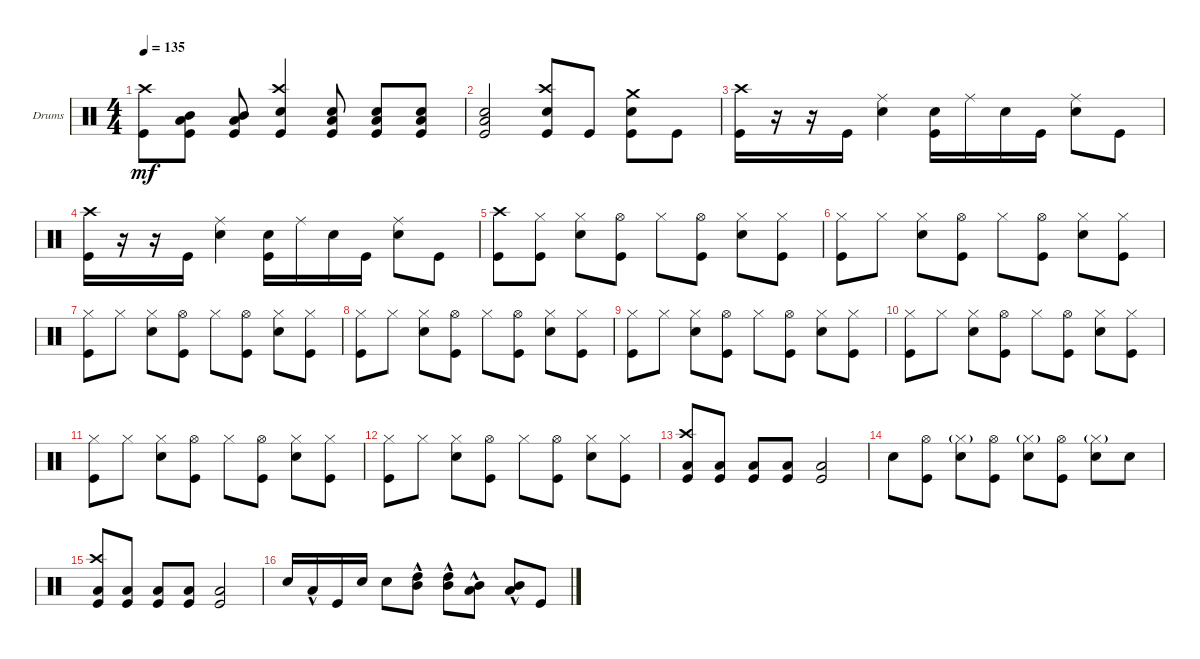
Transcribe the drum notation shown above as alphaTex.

\defaultSystemsLayout 4
\bracketExtendMode groupsimilarinstruments
\firstSystemTrackNameOrientation horizontal
\otherSystemsTrackNameOrientation horizontal
\track ("Drumkit" "Drums") {instrument percussion}
\staff {score}
\articulation defaults
\ts (4 4)
\tempo 135
\clef neutral
\ks c
("Kick (hit)" "Crash high (hit)").8{dy mf} ("Mid Tom (hit)" "Low Tom (hit)" "Kick (hit)").8 ("Mid Tom (hit)" "Low Tom (hit)" "Kick (hit)").8 ("Kick (hit)" "Snare (hit) 2" "Crash high (hit)").4 ("Kick (hit)" "Low Tom (hit)" "Snare (hit) 2").8 ("Kick (hit)" "Snare (hit) 2" "Low Tom (hit)").8 ("Kick (hit)" "Low Tom (hit)" "Snare (hit) 2").8 |
("Kick (hit)" "Snare (hit) 2" "Low Tom (hit)").2 ("Snare (hit) 2" "Kick (hit)" "Crash high (hit)").8 "Kick (hit)".8 ("Snare (hit) 2" "Crash medium (hit)" "Kick (hit)").8 "Kick (hit)".8 |
("Crash high (hit)" "Kick (hit)").16 r.16 r.16 "Kick (hit)".16 ("Ride (middle)" "Snare (hit) 2").4 ("Snare (hit) 2" "Kick (hit)").16 "Ride (middle)".16 "Snare (hit) 2".16 "Kick (hit)".16 ("Snare (hit) 2" "Ride (middle)").8 "Kick (hit)".8 |
("Crash high (hit)" "Kick (hit)").16 r.16 r.16 "Kick (hit)".16 ("Ride (middle)" "Snare (hit) 2").4 ("Snare (hit) 2" "Kick (hit)").16 "Ride (middle)".16 "Snare (hit) 2".16 "Kick (hit)".16 ("Snare (hit) 2" "Ride (middle)").8 "Kick (hit)".8 |
("Crash high (hit)" "Kick (hit)").8 ("Kick (hit)" "Hi-Hat (closed)").8 ("Hi-Hat (closed)" "Snare (hit) 2").8 ("Hi-Hat (open)" "Kick (hit)").8 "Hi-Hat (closed)".8 ("Kick (hit)" "Hi-Hat (open)").8 ("Snare (hit) 2" "Hi-Hat (closed)").8 ("Kick (hit)" "Hi-Hat (closed)").8 |
("Hi-Hat (closed)" "Kick (hit)").8 "Hi-Hat (closed)".8 ("Hi-Hat (closed)" "Snare (hit) 2").8 ("Hi-Hat (open)" "Kick (hit)").8 "Hi-Hat (closed)".8 ("Kick (hit)" "Hi-Hat (open)").8 ("Snare (hit) 2" "Hi-Hat (closed)").8 ("Kick (hit)" "Hi-Hat (closed)").8 |
("Hi-Hat (closed)" "Kick (hit)").8 "Hi-Hat (closed)".8 ("Hi-Hat (closed)" "Snare (hit) 2").8 ("Hi-Hat (open)" "Kick (hit)").8 "Hi-Hat (closed)".8 ("Kick (hit)" "Hi-Hat (open)").8 ("Snare (hit) 2" "Hi-Hat (closed)").8 ("Kick (hit)" "Hi-Hat (closed)").8 |
("Hi-Hat (closed)" "Kick (hit)").8 "Hi-Hat (closed)".8 ("Hi-Hat (closed)" "Snare (hit) 2").8 ("Hi-Hat (open)" "Kick (hit)").8 "Hi-Hat (closed)".8 ("Kick (hit)" "Hi-Hat (open)").8 ("Snare (hit) 2" "Hi-Hat (closed)").8 ("Kick (hit)" "Hi-Hat (closed)").8 |
("Hi-Hat (closed)" "Kick (hit)").8 "Hi-Hat (closed)".8 ("Hi-Hat (closed)" "Snare (hit) 2").8 ("Hi-Hat (open)" "Kick (hit)").8 "Hi-Hat (closed)".8 ("Kick (hit)" "Hi-Hat (open)").8 ("Snare (hit) 2" "Hi-Hat (closed)").8 ("Kick (hit)" "Hi-Hat (closed)").8 |
("Hi-Hat (closed)" "Kick (hit)").8 "Hi-Hat (closed)".8 ("Hi-Hat (closed)" "Snare (hit) 2").8 ("Hi-Hat (open)" "Kick (hit)").8 "Hi-Hat (closed)".8 ("Kick (hit)" "Hi-Hat (open)").8 ("Snare (hit) 2" "Hi-Hat (closed)").8 ("Kick (hit)" "Hi-Hat (closed)").8 |
("Hi-Hat (closed)" "Kick (hit)").8 "Hi-Hat (closed)".8 ("Hi-Hat (closed)" "Snare (hit) 2").8 ("Hi-Hat (open)" "Kick (hit)").8 "Hi-Hat (closed)".8 ("Kick (hit)" "Hi-Hat (open)").8 ("Snare (hit) 2" "Hi-Hat (closed)").8 ("Kick (hit)" "Hi-Hat (closed)").8 |
("Hi-Hat (closed)" "Kick (hit)").8 "Hi-Hat (closed)".8 ("Hi-Hat (closed)" "Snare (hit) 2").8 ("Hi-Hat (open)" "Kick (hit)").8 "Hi-Hat (closed)".8 ("Kick (hit)" "Hi-Hat (open)").8 ("Snare (hit) 2" "Hi-Hat (closed)").8 ("Kick (hit)" "Hi-Hat (closed)").8 |
("Kick (hit)" "Low Tom (hit)" "Crash high (hit)").8 ("Kick (hit)" "Low Tom (hit)").8 ("Kick (hit)" "Low Tom (hit)").8 ("Kick (hit)" "Low Tom (hit)").8 ("Kick (hit)" "Low Tom (hit)").2 |
"Snare (hit) 2".8 ("Hi-Hat (open)" "Kick (hit)").8 ("Snare (hit) 2" "Hi-Hat (closed)"{g}).8 ("Hi-Hat (open)" "Kick (hit)").8 ("Snare (hit) 2" "Hi-Hat (closed)"{g}).8 ("Kick (hit)" "Hi-Hat (open)").8 ("Snare (hit) 2" "Hi-Hat (closed)"{g}).8 "Snare (hit) 2".8 |
("Kick (hit)" "Low Tom (hit)" "Crash high (hit)").8 ("Kick (hit)" "Low Tom (hit)").8 ("Kick (hit)" "Low Tom (hit)").8 ("Kick (hit)" "Low Tom (hit)").8 ("Kick (hit)" "Low Tom (hit)").2 |
"Snare (hit) 2".16 "Low Tom (hit)"{hac}.16 "Kick (hit)".16 "Snare (hit) 2".16 "Snare (hit) 2".8 ("Mid Tom (hit)"{hac} "High Tom (hit)"{hac}).8 ("Mid Tom (hit)"{hac} "High Tom (hit)"{hac}).8 ("Low Tom (hit)"{hac} "Mid Tom (hit)"{hac}).8 ("Low Tom (hit)"{hac} "Mid Tom (hit)"{hac}).8 "Kick (hit)".8
